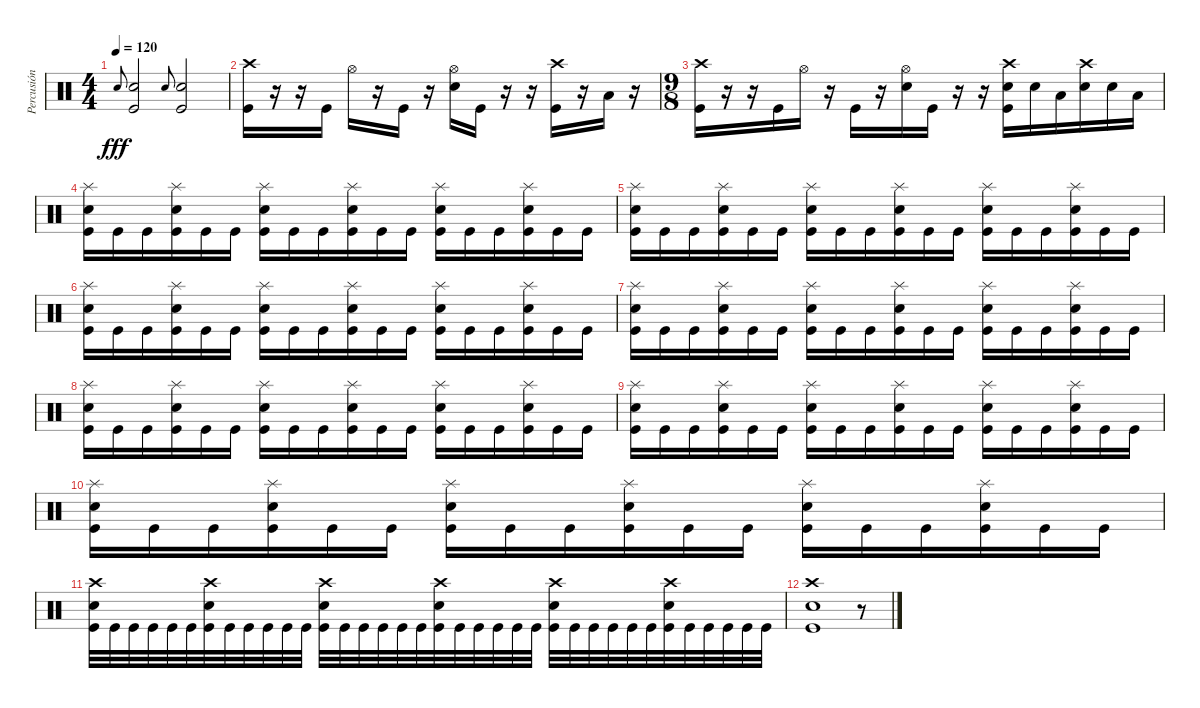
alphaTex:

\track ("Percusión" "Percusión") {instrument percussion}
\staff {score}
\articulation defaults
\ts (4 4)
\tempo 120
\clef neutral
\ks c "Snare (hit) 2".8{gr onbeat dy fff}
("Snare (hit) 2" "Kick (hit)").2 "Snare (hit) 2".8{gr onbeat} ("Snare (hit) 2" "Kick (hit)").2 |
("Kick (hit)" "Crash high (hit)").16 r.16 r.16 "Kick (hit)".16 "Hi-Hat (open)".16 r.16 "Kick (hit)".16 r.16 ("Hi-Hat (open)" "Snare (hit) 2").16 "Kick (hit)".16 r.16 r.16 ("Crash high (hit)" "Kick (hit)").16 r.16 "Low Floor Tom (hit)".16 r.16 |
\ts (9 8)
("Kick (hit)" "Crash high (hit)").16 r.16 r.16 "Kick (hit)".16 "Hi-Hat (open)".16 r.16 "Kick (hit)".16 r.16 ("Hi-Hat (open)" "Snare (hit) 2").16 "Kick (hit)".16 r.16 r.16 ("Crash high (hit)" "Snare (hit) 2" "Kick (hit)").16 "Snare (hit) 2".16 "Low Floor Tom (hit)".16 ("Crash high (hit)" "Snare (hit) 2").16 "Snare (hit) 2".16 "Low Floor Tom (hit)".16 |
("Splash (hit)" "Snare (hit) 2" "Kick (hit)").16 "Kick (hit)".16 "Kick (hit)".16 ("Splash (hit)" "Snare (hit) 2" "Kick (hit)").16 "Kick (hit)".16 "Kick (hit)".16 ("Splash (hit)" "Snare (hit) 2" "Kick (hit)").16 "Kick (hit)".16 "Kick (hit)".16 ("Splash (hit)" "Snare (hit) 2" "Kick (hit)").16 "Kick (hit)".16 "Kick (hit)".16 ("Splash (hit)" "Snare (hit) 2" "Kick (hit)").16 "Kick (hit)".16 "Kick (hit)".16 ("Splash (hit)" "Snare (hit) 2" "Kick (hit)").16 "Kick (hit)".16 "Kick (hit)".16 |
("Splash (hit)" "Snare (hit) 2" "Kick (hit)").16 "Kick (hit)".16 "Kick (hit)".16 ("Splash (hit)" "Snare (hit) 2" "Kick (hit)").16 "Kick (hit)".16 "Kick (hit)".16 ("Splash (hit)" "Snare (hit) 2" "Kick (hit)").16 "Kick (hit)".16 "Kick (hit)".16 ("Splash (hit)" "Snare (hit) 2" "Kick (hit)").16 "Kick (hit)".16 "Kick (hit)".16 ("Splash (hit)" "Snare (hit) 2" "Kick (hit)").16 "Kick (hit)".16 "Kick (hit)".16 ("Splash (hit)" "Snare (hit) 2" "Kick (hit)").16 "Kick (hit)".16 "Kick (hit)".16 |
("Splash (hit)" "Snare (hit) 2" "Kick (hit)").16 "Kick (hit)".16 "Kick (hit)".16 ("Splash (hit)" "Snare (hit) 2" "Kick (hit)").16 "Kick (hit)".16 "Kick (hit)".16 ("Splash (hit)" "Snare (hit) 2" "Kick (hit)").16 "Kick (hit)".16 "Kick (hit)".16 ("Splash (hit)" "Snare (hit) 2" "Kick (hit)").16 "Kick (hit)".16 "Kick (hit)".16 ("Splash (hit)" "Snare (hit) 2" "Kick (hit)").16 "Kick (hit)".16 "Kick (hit)".16 ("Splash (hit)" "Snare (hit) 2" "Kick (hit)").16 "Kick (hit)".16 "Kick (hit)".16 |
("Splash (hit)" "Snare (hit) 2" "Kick (hit)").16 "Kick (hit)".16 "Kick (hit)".16 ("Splash (hit)" "Snare (hit) 2" "Kick (hit)").16 "Kick (hit)".16 "Kick (hit)".16 ("Splash (hit)" "Snare (hit) 2" "Kick (hit)").16 "Kick (hit)".16 "Kick (hit)".16 ("Splash (hit)" "Snare (hit) 2" "Kick (hit)").16 "Kick (hit)".16 "Kick (hit)".16 ("Splash (hit)" "Snare (hit) 2" "Kick (hit)").16 "Kick (hit)".16 "Kick (hit)".16 ("Splash (hit)" "Snare (hit) 2" "Kick (hit)").16 "Kick (hit)".16 "Kick (hit)".16 |
("Splash (hit)" "Snare (hit) 2" "Kick (hit)").16 "Kick (hit)".16 "Kick (hit)".16 ("Splash (hit)" "Snare (hit) 2" "Kick (hit)").16 "Kick (hit)".16 "Kick (hit)".16 ("Splash (hit)" "Snare (hit) 2" "Kick (hit)").16 "Kick (hit)".16 "Kick (hit)".16 ("Splash (hit)" "Snare (hit) 2" "Kick (hit)").16 "Kick (hit)".16 "Kick (hit)".16 ("Splash (hit)" "Snare (hit) 2" "Kick (hit)").16 "Kick (hit)".16 "Kick (hit)".16 ("Splash (hit)" "Snare (hit) 2" "Kick (hit)").16 "Kick (hit)".16 "Kick (hit)".16 |
("Splash (hit)" "Snare (hit) 2" "Kick (hit)").16 "Kick (hit)".16 "Kick (hit)".16 ("Splash (hit)" "Snare (hit) 2" "Kick (hit)").16 "Kick (hit)".16 "Kick (hit)".16 ("Splash (hit)" "Snare (hit) 2" "Kick (hit)").16 "Kick (hit)".16 "Kick (hit)".16 ("Splash (hit)" "Snare (hit) 2" "Kick (hit)").16 "Kick (hit)".16 "Kick (hit)".16 ("Splash (hit)" "Snare (hit) 2" "Kick (hit)").16 "Kick (hit)".16 "Kick (hit)".16 ("Splash (hit)" "Snare (hit) 2" "Kick (hit)").16 "Kick (hit)".16 "Kick (hit)".16 |
("Splash (hit)" "Snare (hit) 2" "Kick (hit)").16 "Kick (hit)".16 "Kick (hit)".16 ("Splash (hit)" "Snare (hit) 2" "Kick (hit)").16 "Kick (hit)".16 "Kick (hit)".16 ("Splash (hit)" "Snare (hit) 2" "Kick (hit)").16 "Kick (hit)".16 "Kick (hit)".16 ("Splash (hit)" "Snare (hit) 2" "Kick (hit)").16 "Kick (hit)".16 "Kick (hit)".16 ("Splash (hit)" "Snare (hit) 2" "Kick (hit)").16 "Kick (hit)".16 "Kick (hit)".16 ("Splash (hit)" "Snare (hit) 2" "Kick (hit)").16 "Kick (hit)".16 "Kick (hit)".16 |
("Crash high (hit)" "Snare (hit) 2" "Kick (hit)").32 "Kick (hit)".32 "Kick (hit)".32 "Kick (hit)".32 "Kick (hit)".32 "Kick (hit)".32 ("Crash high (hit)" "Snare (hit) 2" "Kick (hit)").32 "Kick (hit)".32 "Kick (hit)".32 "Kick (hit)".32 "Kick (hit)".32 "Kick (hit)".32 ("Crash high (hit)" "Snare (hit) 2" "Kick (hit)").32 "Kick (hit)".32 "Kick (hit)".32 "Kick (hit)".32 "Kick (hit)".32 "Kick (hit)".32 ("Crash high (hit)" "Snare (hit) 2" "Kick (hit)").32 "Kick (hit)".32 "Kick (hit)".32 "Kick (hit)".32 "Kick (hit)".32 "Kick (hit)".32 ("Crash high (hit)" "Snare (hit) 2" "Kick (hit)").32 "Kick (hit)".32 "Kick (hit)".32 "Kick (hit)".32 "Kick (hit)".32 "Kick (hit)".32 ("Crash high (hit)" "Snare (hit) 2" "Kick (hit)").32 "Kick (hit)".32 "Kick (hit)".32 "Kick (hit)".32 "Kick (hit)".32 "Kick (hit)".32 |
("Crash high (hit)" "Snare (hit) 2" "Kick (hit)").1 r.8
